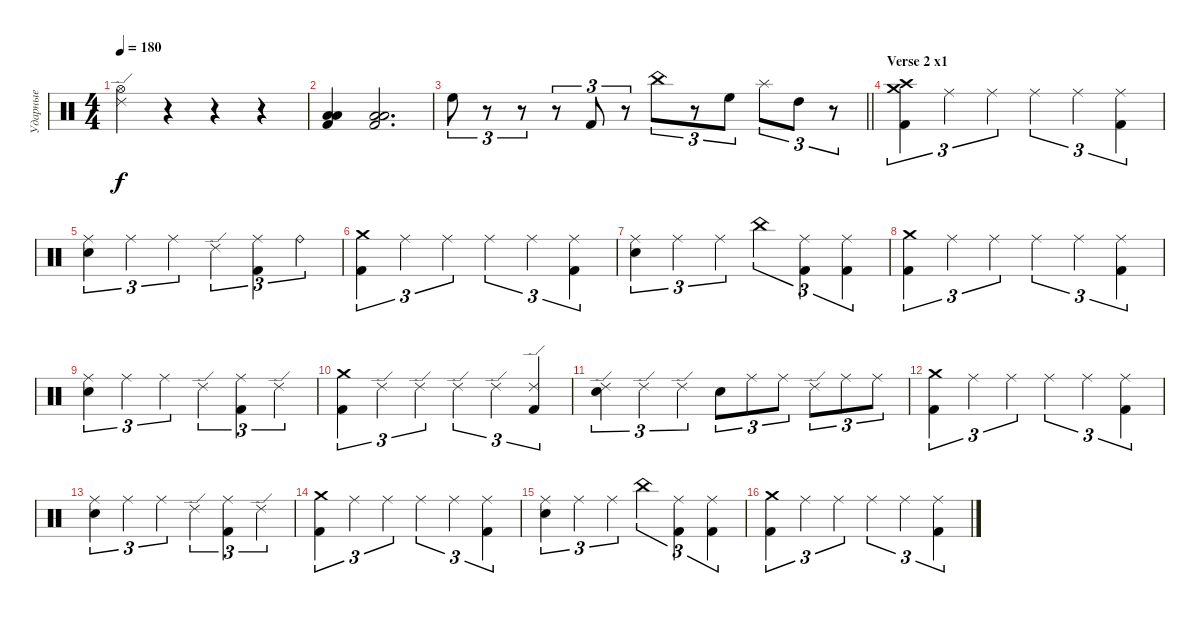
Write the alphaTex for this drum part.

\track ("Ударные" "Ударные") {instrument percussion}
\staff {score}
\articulation defaults
\ts (4 4)
\tempo 180
\clef neutral
\ks c
("Hi-Hat (open)" "Ride (edge) 2").4{dy f} r.4 r.4 r.4 |
("Low Tom (hit)" "Low Floor Tom (hit)" "Kick (hit) 2").4 ("Low Tom (hit)" "Low Floor Tom (hit)" "Kick (hit) 2").2{d} |
\barLineRight lightlight "High Floor Tom (hit)".8{tu (3 2)}
r.8{tu (3 2)} r.8{tu (3 2)} r.8{tu (3 2)} "Kick (hit) 2".8{tu (3 2)} r.8{tu (3 2)} "China (hit)".8{tu (3 2)} r.8{tu (3 2)} "High Floor Tom (hit)".8{tu (3 2)} "Splash (hit)".8{tu (3 2)} "High Tom (hit)".8{tu (3 2)} r.8{tu (3 2)} |
\section ("" "Verse 2 x1")
("Crash high (hit)" "Crash medium (hit)" "Kick (hit) 2").4{tu (3 2)} "Ride (middle)".4{tu (3 2)} "Ride (middle)".4{tu (3 2)} "Ride (middle)".4{tu (3 2)} "Ride (middle)".4{tu (3 2)} ("Ride (middle)" "Kick (hit) 2").4{tu (3 2)} |
("Ride (middle)" "Electric Snare (hit)").4{tu (3 2)} "Ride (middle)".4{tu (3 2)} "Ride (middle)".4{tu (3 2)} "Ride (edge) 2".4{tu (3 2)} ("Ride (middle)" "Kick (hit) 2").4{tu (3 2)} "Ride (bell)".4{tu (3 2)} |
("Crash medium (hit)" "Kick (hit) 2").4{tu (3 2)} "Ride (middle)".4{tu (3 2)} "Ride (middle)".4{tu (3 2)} "Ride (middle)".4{tu (3 2)} "Ride (middle)".4{tu (3 2)} ("Ride (middle)" "Kick (hit) 2").4{tu (3 2)} |
("Ride (middle)" "Electric Snare (hit)").4{tu (3 2)} "Ride (middle)".4{tu (3 2)} "Ride (middle)".4{tu (3 2)} "China (hit)".4{tu (3 2)} ("Ride (middle)" "Kick (hit) 2").4{tu (3 2)} ("Ride (middle)" "Kick (hit) 2").4{tu (3 2)} |
("Crash medium (hit)" "Kick (hit) 2").4{tu (3 2)} "Ride (middle)".4{tu (3 2)} "Ride (middle)".4{tu (3 2)} "Ride (middle)".4{tu (3 2)} "Ride (middle)".4{tu (3 2)} ("Ride (middle)" "Kick (hit) 2").4{tu (3 2)} |
("Ride (middle)" "Electric Snare (hit)").4{tu (3 2)} "Ride (middle)".4{tu (3 2)} "Ride (middle)".4{tu (3 2)} "Ride (edge) 2".4{tu (3 2)} ("Ride (middle)" "Kick (hit) 2").4{tu (3 2)} "Ride (edge) 2".4{tu (3 2)} |
("Crash medium (hit)" "Kick (hit) 2").4{tu (3 2)} "Ride (edge) 2".4{tu (3 2)} "Ride (edge) 2".4{tu (3 2)} "Ride (edge) 2".4{tu (3 2)} "Ride (edge) 2".4{tu (3 2)} ("Ride (edge) 2" "Kick (hit) 2").4{tu (3 2)} |
("Ride (edge) 2" "Electric Snare (hit)").4{tu (3 2)} "Ride (edge) 2".4{tu (3 2)} "Ride (edge) 2".4{tu (3 2)} "Electric Snare (hit)".8{tu (3 2)} "Ride (middle)".8{tu (3 2)} "Ride (middle)".8{tu (3 2)} "Ride (edge) 2".8{tu (3 2)} "Ride (middle)".8{tu (3 2)} "Ride (middle)".8{tu (3 2)} |
("Crash medium (hit)" "Kick (hit) 2").4{tu (3 2)} "Ride (middle)".4{tu (3 2)} "Ride (middle)".4{tu (3 2)} "Ride (middle)".4{tu (3 2)} "Ride (middle)".4{tu (3 2)} ("Ride (middle)" "Kick (hit) 2").4{tu (3 2)} |
("Ride (middle)" "Electric Snare (hit)").4{tu (3 2)} "Ride (middle)".4{tu (3 2)} "Ride (middle)".4{tu (3 2)} "Ride (edge) 2".4{tu (3 2)} ("Ride (middle)" "Kick (hit) 2").4{tu (3 2)} "Ride (edge) 2".4{tu (3 2)} |
("Crash medium (hit)" "Kick (hit) 2").4{tu (3 2)} "Ride (middle)".4{tu (3 2)} "Ride (middle)".4{tu (3 2)} "Ride (middle)".4{tu (3 2)} "Ride (middle)".4{tu (3 2)} ("Ride (middle)" "Kick (hit) 2").4{tu (3 2)} |
("Ride (middle)" "Electric Snare (hit)").4{tu (3 2)} "Ride (middle)".4{tu (3 2)} "Ride (middle)".4{tu (3 2)} "China (hit)".4{tu (3 2)} ("Ride (middle)" "Kick (hit) 2").4{tu (3 2)} ("Ride (middle)" "Kick (hit) 2").4{tu (3 2)} |
("Crash medium (hit)" "Kick (hit) 2").4{tu (3 2)} "Ride (middle)".4{tu (3 2)} "Ride (middle)".4{tu (3 2)} "Ride (middle)".4{tu (3 2)} "Ride (middle)".4{tu (3 2)} ("Ride (middle)" "Kick (hit) 2").4{tu (3 2)}
